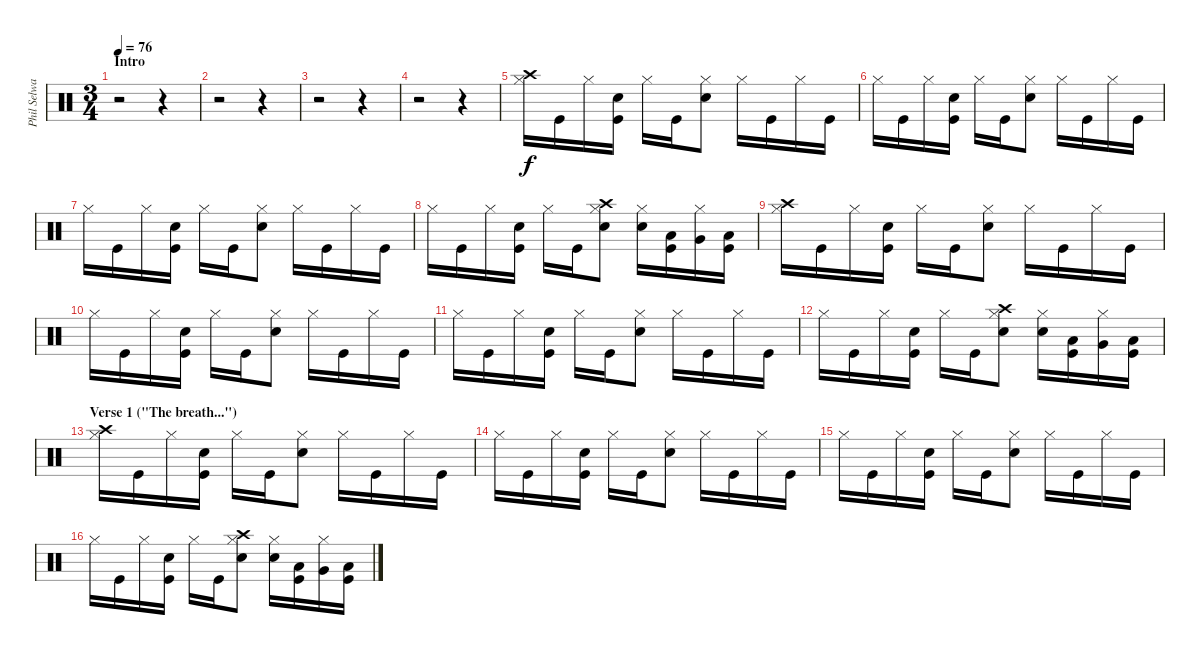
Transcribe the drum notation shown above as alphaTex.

\track ("Phil Selway" "Phil Selwa") {instrument percussion}
\staff {score}
\articulation defaults
\ts (3 4)
\section ("" "Intro")
\tempo 76
\clef neutral
\ks c
r.2{dy f} r.4 |
r.2 r.4 |
r.2 r.4 |
r.2 r.4 |
("Hi-Hat (closed)" "Crash high (hit)").16 "Kick (hit)".16 "Hi-Hat (closed)".16 ("Kick (hit)" "Snare (hit) 2").16 "Hi-Hat (closed)".16 "Kick (hit)".16 ("Snare (hit) 2" "Hi-Hat (closed)").8 "Hi-Hat (closed)".16 "Kick (hit)".16 "Hi-Hat (closed)".16 "Kick (hit)".16 |
"Hi-Hat (closed)".16 "Kick (hit)".16 "Hi-Hat (closed)".16 ("Kick (hit)" "Snare (hit) 2").16 "Hi-Hat (closed)".16 "Kick (hit)".16 ("Snare (hit) 2" "Hi-Hat (closed)").8 "Hi-Hat (closed)".16 "Kick (hit)".16 "Hi-Hat (closed)".16 "Kick (hit)".16 |
"Hi-Hat (closed)".16 "Kick (hit)".16 "Hi-Hat (closed)".16 ("Kick (hit)" "Snare (hit) 2").16 "Hi-Hat (closed)".16 "Kick (hit)".16 ("Snare (hit) 2" "Hi-Hat (closed)").8 "Hi-Hat (closed)".16 "Kick (hit)".16 "Hi-Hat (closed)".16 "Kick (hit)".16 |
"Hi-Hat (closed)".16 "Kick (hit)".16 "Hi-Hat (closed)".16 ("Kick (hit)" "Snare (hit) 2").16 "Hi-Hat (closed)".16 "Kick (hit)".16 ("Snare (hit) 2" "Hi-Hat (closed)" "Crash high (hit)").8 ("Snare (hit) 2" "Hi-Hat (closed)").16 ("Kick (hit)" "Low Tom (hit)").16 ("Hi-Hat (closed)" "Very Low Tom (hit)").16 ("Kick (hit)" "Low Floor Tom (hit)").16 |
("Hi-Hat (closed)" "Crash high (hit)").16 "Kick (hit)".16 "Hi-Hat (closed)".16 ("Kick (hit)" "Snare (hit) 2").16 "Hi-Hat (closed)".16 "Kick (hit)".16 ("Snare (hit) 2" "Hi-Hat (closed)").8 "Hi-Hat (closed)".16 "Kick (hit)".16 "Hi-Hat (closed)".16 "Kick (hit)".16 |
"Hi-Hat (closed)".16 "Kick (hit)".16 "Hi-Hat (closed)".16 ("Kick (hit)" "Snare (hit) 2").16 "Hi-Hat (closed)".16 "Kick (hit)".16 ("Snare (hit) 2" "Hi-Hat (closed)").8 "Hi-Hat (closed)".16 "Kick (hit)".16 "Hi-Hat (closed)".16 "Kick (hit)".16 |
"Hi-Hat (closed)".16 "Kick (hit)".16 "Hi-Hat (closed)".16 ("Kick (hit)" "Snare (hit) 2").16 "Hi-Hat (closed)".16 "Kick (hit)".16 ("Snare (hit) 2" "Hi-Hat (closed)").8 "Hi-Hat (closed)".16 "Kick (hit)".16 "Hi-Hat (closed)".16 "Kick (hit)".16 |
"Hi-Hat (closed)".16 "Kick (hit)".16 "Hi-Hat (closed)".16 ("Kick (hit)" "Snare (hit) 2").16 "Hi-Hat (closed)".16 "Kick (hit)".16 ("Snare (hit) 2" "Hi-Hat (closed)" "Crash high (hit)").8 ("Snare (hit) 2" "Hi-Hat (closed)").16 ("Kick (hit)" "Low Tom (hit)").16 ("Hi-Hat (closed)" "Very Low Tom (hit)").16 ("Kick (hit)" "Low Floor Tom (hit)").16 |
\section ("" "Verse 1 (\"The breath...\")")
("Hi-Hat (closed)" "Crash high (hit)").16 "Kick (hit)".16 "Hi-Hat (closed)".16 ("Kick (hit)" "Snare (hit) 2").16 "Hi-Hat (closed)".16 "Kick (hit)".16 ("Snare (hit) 2" "Hi-Hat (closed)").8 "Hi-Hat (closed)".16 "Kick (hit)".16 "Hi-Hat (closed)".16 "Kick (hit)".16 |
"Hi-Hat (closed)".16 "Kick (hit)".16 "Hi-Hat (closed)".16 ("Kick (hit)" "Snare (hit) 2").16 "Hi-Hat (closed)".16 "Kick (hit)".16 ("Snare (hit) 2" "Hi-Hat (closed)").8 "Hi-Hat (closed)".16 "Kick (hit)".16 "Hi-Hat (closed)".16 "Kick (hit)".16 |
"Hi-Hat (closed)".16 "Kick (hit)".16 "Hi-Hat (closed)".16 ("Kick (hit)" "Snare (hit) 2").16 "Hi-Hat (closed)".16 "Kick (hit)".16 ("Snare (hit) 2" "Hi-Hat (closed)").8 "Hi-Hat (closed)".16 "Kick (hit)".16 "Hi-Hat (closed)".16 "Kick (hit)".16 |
"Hi-Hat (closed)".16 "Kick (hit)".16 "Hi-Hat (closed)".16 ("Kick (hit)" "Snare (hit) 2").16 "Hi-Hat (closed)".16 "Kick (hit)".16 ("Snare (hit) 2" "Hi-Hat (closed)" "Crash high (hit)").8 ("Snare (hit) 2" "Hi-Hat (closed)").16 ("Kick (hit)" "Low Tom (hit)").16 ("Hi-Hat (closed)" "Very Low Tom (hit)").16 ("Kick (hit)" "Low Floor Tom (hit)").16
